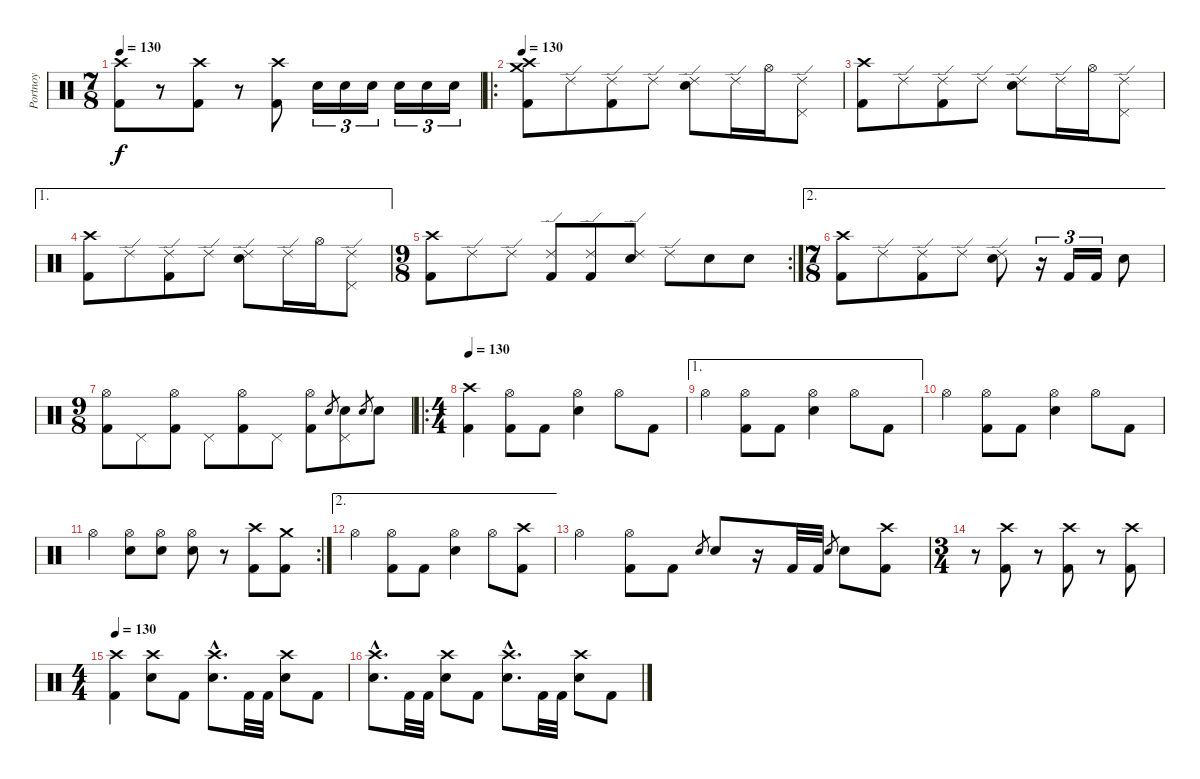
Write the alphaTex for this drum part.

\track ("Portnoy" "Portnoy") {instrument percussion}
\staff {score}
\articulation defaults
\ts (7 8)
\tempo 130
\clef neutral
\ks c
("Crash high (hit)" "Kick (hit) 2").8{dy f} r.8{volume 0} ("Crash high (hit)" "Kick (hit) 2").8{volume 16} r.8{volume 0} ("Crash high (hit)" "Kick (hit) 2").8{volume 16} "Electric Snare (hit)".16{tu (3 2)} "Electric Snare (hit)".16{tu (3 2)} "Electric Snare (hit)".16{tu (3 2)} "Electric Snare (hit)".16{tu (3 2)} "Electric Snare (hit)".16{tu (3 2)} "Electric Snare (hit)".16{tu (3 2)} |
\ro
\tempo 130
("Crash high (hit)" "Crash medium (hit)" "Kick (hit) 2").8 "Ride (edge) 2".8 ("Ride (edge) 2" "Kick (hit) 2").8 "Ride (edge) 2".8 ("Ride (edge) 2" "Electric Snare (hit)").8 "Ride (edge) 2".16 "Hi-Hat (open)".16 ("Ride (edge) 2" "Pedal Hi-Hat (hit)").8 |
("Crash high (hit)" "Kick (hit) 2").8 "Ride (edge) 2".8 ("Ride (edge) 2" "Kick (hit) 2").8 "Ride (edge) 2".8 ("Ride (edge) 2" "Electric Snare (hit)").8 "Ride (edge) 2".16 "Hi-Hat (open)".16 ("Ride (edge) 2" "Pedal Hi-Hat (hit)").8 |
\ae 1
("Crash high (hit)" "Kick (hit) 2").8 "Ride (edge) 2".8 ("Ride (edge) 2" "Kick (hit) 2").8 "Ride (edge) 2".8 ("Ride (edge) 2" "Electric Snare (hit)").8 "Ride (edge) 2".16 "Hi-Hat (open)".16 ("Ride (edge) 2" "Pedal Hi-Hat (hit)").8 |
\rc 2
\ts (9 8)
("Crash high (hit)" "Kick (hit) 2").8 "Ride (edge) 2".8 "Ride (edge) 2".8 ("Ride (edge) 2" "Kick (hit) 2").8 ("Ride (edge) 2" "Kick (hit) 2").8 ("Ride (edge) 2" "Electric Snare (hit)").8 "Ride (edge) 2".8 "Electric Snare (hit)".8 "Electric Snare (hit)".8 |
\ae 2
\ts (7 8)
("Crash high (hit)" "Kick (hit) 2").8 "Ride (edge) 2".8 ("Ride (edge) 2" "Kick (hit) 2").8 "Ride (edge) 2".8 ("Ride (edge) 2" "Electric Snare (hit)").8 r.16{tu (3 2)} "Kick (hit) 2".16{tu (3 2)} "Kick (hit) 2".16{tu (3 2)} "Electric Snare (hit)".8 |
\ts (9 8)
("Hi-Hat (open)" "Kick (hit) 2").8 "Pedal Hi-Hat (hit)".8 ("Hi-Hat (open)" "Kick (hit) 2").8 "Pedal Hi-Hat (hit)".8 ("Hi-Hat (open)" "Kick (hit) 2").8 "Pedal Hi-Hat (hit)".8 ("Hi-Hat (open)" "Kick (hit) 2").8 "Electric Snare (hit)".8{gr} ("Electric Snare (hit)" "Pedal Hi-Hat (hit)").8 "Electric Snare (hit)".8{gr} "Electric Snare (hit)".8 |
\ro
\ts (4 4)
\tempo 130
("Crash high (hit)" "Kick (hit) 2").4 ("Hi-Hat (open)" "Kick (hit) 2").8 "Kick (hit) 2".8 ("Hi-Hat (open)" "Electric Snare (hit)").4 "Hi-Hat (open)".8 "Kick (hit) 2".8 |
\ae 1 "Hi-Hat (open)".4
("Hi-Hat (open)" "Kick (hit) 2").8 "Kick (hit) 2".8 ("Hi-Hat (open)" "Electric Snare (hit)").4 "Hi-Hat (open)".8 "Kick (hit) 2".8 |
"Hi-Hat (open)".4 ("Hi-Hat (open)" "Kick (hit) 2").8 "Kick (hit) 2".8 ("Hi-Hat (open)" "Electric Snare (hit)").4 "Hi-Hat (open)".8 "Kick (hit) 2".8 |
\rc 2 "Hi-Hat (open)".4
("Hi-Hat (open)" "Electric Snare (hit)").8 ("Hi-Hat (open)" "Electric Snare (hit)").8 ("Hi-Hat (open)" "Electric Snare (hit)").8 r.8 ("Crash high (hit)" "Kick (hit) 2").8 ("Crash medium (hit)" "Kick (hit) 2").8 |
\ae 2 "Hi-Hat (open)".4
("Hi-Hat (open)" "Kick (hit) 2").8 "Kick (hit) 2".8 ("Hi-Hat (open)" "Electric Snare (hit)").4 "Hi-Hat (open)".8 ("Crash high (hit)" "Kick (hit) 2").8 |
"Hi-Hat (open)".4 ("Hi-Hat (open)" "Kick (hit) 2").8 "Kick (hit) 2".8 "Electric Snare (hit)".8{gr} "Electric Snare (hit)".8 r.16 "Kick (hit) 2".32 "Kick (hit) 2".32 "Electric Snare (hit)".8{gr} "Electric Snare (hit)".8 ("Crash high (hit)" "Kick (hit) 2").8 |
\ts (3 4)
r.8{volume 0} ("Crash high (hit)" "Kick (hit) 2").8{volume 16} r.8{volume 0} ("Crash high (hit)" "Kick (hit) 2").8{volume 16} r.8{volume 0} ("Crash high (hit)" "Kick (hit) 2").8{volume 16} |
\ts (4 4)
\tempo 130
("Crash high (hit)" "Kick (hit) 2").4 ("Crash high (hit)" "Electric Snare (hit)").8 "Kick (hit) 2".8 ("Crash high (hit)"{hac} "Electric Snare (hit)"{hac}).8{d} "Kick (hit) 2".32 "Kick (hit) 2".32 ("Crash high (hit)" "Electric Snare (hit)").8 "Kick (hit) 2".8 |
("Crash high (hit)"{hac} "Electric Snare (hit)"{hac}).8{d} "Kick (hit) 2".32 "Kick (hit) 2".32 ("Crash high (hit)" "Electric Snare (hit)").8 "Kick (hit) 2".8 ("Crash high (hit)"{hac} "Electric Snare (hit)"{hac}).8{d} "Kick (hit) 2".32 "Kick (hit) 2".32 ("Crash high (hit)" "Electric Snare (hit)").8 "Kick (hit) 2".8
